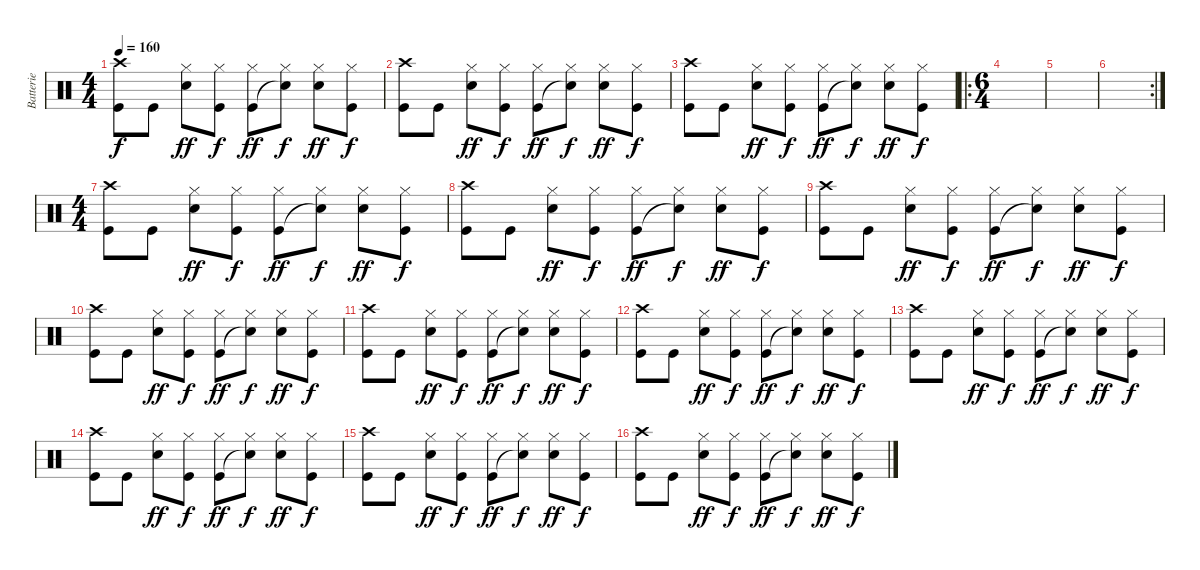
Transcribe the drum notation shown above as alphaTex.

\track ("Batterie" "Batterie") {instrument percussion}
\staff {score}
\articulation defaults
\ts (4 4)
\tempo 160
\clef neutral
\ks c
("Crash high (hit)" "Kick (hit)").8{dy f} "Kick (hit)".8 ("Hi-Hat (closed)" "Snare (hit) 2").8{dy ff} ("Hi-Hat (closed)" "Kick (hit)").8{dy f} ("Hi-Hat (closed)" "Kick (hit)").8{dy ff} ("Hi-Hat (closed)" "Snare (hit)"{t}).8{dy f} ("Hi-Hat (closed)" "Snare (hit) 2").8{dy ff} ("Hi-Hat (closed)" "Kick (hit)").8{dy f} |
("Crash high (hit)" "Kick (hit)").8 "Kick (hit)".8 ("Hi-Hat (closed)" "Snare (hit) 2").8{dy ff} ("Hi-Hat (closed)" "Kick (hit)").8{dy f} ("Hi-Hat (closed)" "Kick (hit)").8{dy ff} ("Hi-Hat (closed)" "Snare (hit)"{t}).8{dy f} ("Hi-Hat (closed)" "Snare (hit) 2").8{dy ff} ("Hi-Hat (closed)" "Kick (hit)").8{dy f} |
("Crash high (hit)" "Kick (hit)").8 "Kick (hit)".8 ("Hi-Hat (closed)" "Snare (hit) 2").8{dy ff} ("Hi-Hat (closed)" "Kick (hit)").8{dy f} ("Hi-Hat (closed)" "Kick (hit)").8{dy ff} ("Hi-Hat (closed)" "Snare (hit)"{t}).8{dy f} ("Hi-Hat (closed)" "Snare (hit) 2").8{dy ff} ("Hi-Hat (closed)" "Kick (hit)").8{dy f} |
\ro
\ts (6 4)
|
|
\rc 2
|
\ts (4 4)
("Crash high (hit)" "Kick (hit)").8 "Kick (hit)".8 ("Hi-Hat (closed)" "Snare (hit) 2").8{dy ff} ("Hi-Hat (closed)" "Kick (hit)").8{dy f} ("Hi-Hat (closed)" "Kick (hit)").8{dy ff} ("Hi-Hat (closed)" "Snare (hit)"{t}).8{dy f} ("Hi-Hat (closed)" "Snare (hit) 2").8{dy ff} ("Hi-Hat (closed)" "Kick (hit)").8{dy f} |
("Crash high (hit)" "Kick (hit)").8 "Kick (hit)".8 ("Hi-Hat (closed)" "Snare (hit) 2").8{dy ff} ("Hi-Hat (closed)" "Kick (hit)").8{dy f} ("Hi-Hat (closed)" "Kick (hit)").8{dy ff} ("Hi-Hat (closed)" "Snare (hit)"{t}).8{dy f} ("Hi-Hat (closed)" "Snare (hit) 2").8{dy ff} ("Hi-Hat (closed)" "Kick (hit)").8{dy f} |
("Crash high (hit)" "Kick (hit)").8 "Kick (hit)".8 ("Hi-Hat (closed)" "Snare (hit) 2").8{dy ff} ("Hi-Hat (closed)" "Kick (hit)").8{dy f} ("Hi-Hat (closed)" "Kick (hit)").8{dy ff} ("Hi-Hat (closed)" "Snare (hit)"{t}).8{dy f} ("Hi-Hat (closed)" "Snare (hit) 2").8{dy ff} ("Hi-Hat (closed)" "Kick (hit)").8{dy f} |
("Crash high (hit)" "Kick (hit)").8 "Kick (hit)".8 ("Hi-Hat (closed)" "Snare (hit) 2").8{dy ff} ("Hi-Hat (closed)" "Kick (hit)").8{dy f} ("Hi-Hat (closed)" "Kick (hit)").8{dy ff} ("Hi-Hat (closed)" "Snare (hit)"{t}).8{dy f} ("Hi-Hat (closed)" "Snare (hit) 2").8{dy ff} ("Hi-Hat (closed)" "Kick (hit)").8{dy f} |
("Crash high (hit)" "Kick (hit)").8 "Kick (hit)".8 ("Hi-Hat (closed)" "Snare (hit) 2").8{dy ff} ("Hi-Hat (closed)" "Kick (hit)").8{dy f} ("Hi-Hat (closed)" "Kick (hit)").8{dy ff} ("Hi-Hat (closed)" "Snare (hit)"{t}).8{dy f} ("Hi-Hat (closed)" "Snare (hit) 2").8{dy ff} ("Hi-Hat (closed)" "Kick (hit)").8{dy f} |
("Crash high (hit)" "Kick (hit)").8 "Kick (hit)".8 ("Hi-Hat (closed)" "Snare (hit) 2").8{dy ff} ("Hi-Hat (closed)" "Kick (hit)").8{dy f} ("Hi-Hat (closed)" "Kick (hit)").8{dy ff} ("Hi-Hat (closed)" "Snare (hit)"{t}).8{dy f} ("Hi-Hat (closed)" "Snare (hit) 2").8{dy ff} ("Hi-Hat (closed)" "Kick (hit)").8{dy f} |
("Crash high (hit)" "Kick (hit)").8 "Kick (hit)".8 ("Hi-Hat (closed)" "Snare (hit) 2").8{dy ff} ("Hi-Hat (closed)" "Kick (hit)").8{dy f} ("Hi-Hat (closed)" "Kick (hit)").8{dy ff} ("Hi-Hat (closed)" "Snare (hit)"{t}).8{dy f} ("Hi-Hat (closed)" "Snare (hit) 2").8{dy ff} ("Hi-Hat (closed)" "Kick (hit)").8{dy f} |
("Crash high (hit)" "Kick (hit)").8 "Kick (hit)".8 ("Hi-Hat (closed)" "Snare (hit) 2").8{dy ff} ("Hi-Hat (closed)" "Kick (hit)").8{dy f} ("Hi-Hat (closed)" "Kick (hit)").8{dy ff} ("Hi-Hat (closed)" "Snare (hit)"{t}).8{dy f} ("Hi-Hat (closed)" "Snare (hit) 2").8{dy ff} ("Hi-Hat (closed)" "Kick (hit)").8{dy f} |
("Crash high (hit)" "Kick (hit)").8 "Kick (hit)".8 ("Hi-Hat (closed)" "Snare (hit) 2").8{dy ff} ("Hi-Hat (closed)" "Kick (hit)").8{dy f} ("Hi-Hat (closed)" "Kick (hit)").8{dy ff} ("Hi-Hat (closed)" "Snare (hit)"{t}).8{dy f} ("Hi-Hat (closed)" "Snare (hit) 2").8{dy ff} ("Hi-Hat (closed)" "Kick (hit)").8{dy f} |
("Crash high (hit)" "Kick (hit)").8 "Kick (hit)".8 ("Hi-Hat (closed)" "Snare (hit) 2").8{dy ff} ("Hi-Hat (closed)" "Kick (hit)").8{dy f} ("Hi-Hat (closed)" "Kick (hit)").8{dy ff} ("Hi-Hat (closed)" "Snare (hit)"{t}).8{dy f} ("Hi-Hat (closed)" "Snare (hit) 2").8{dy ff} ("Hi-Hat (closed)" "Kick (hit)").8{dy f}
